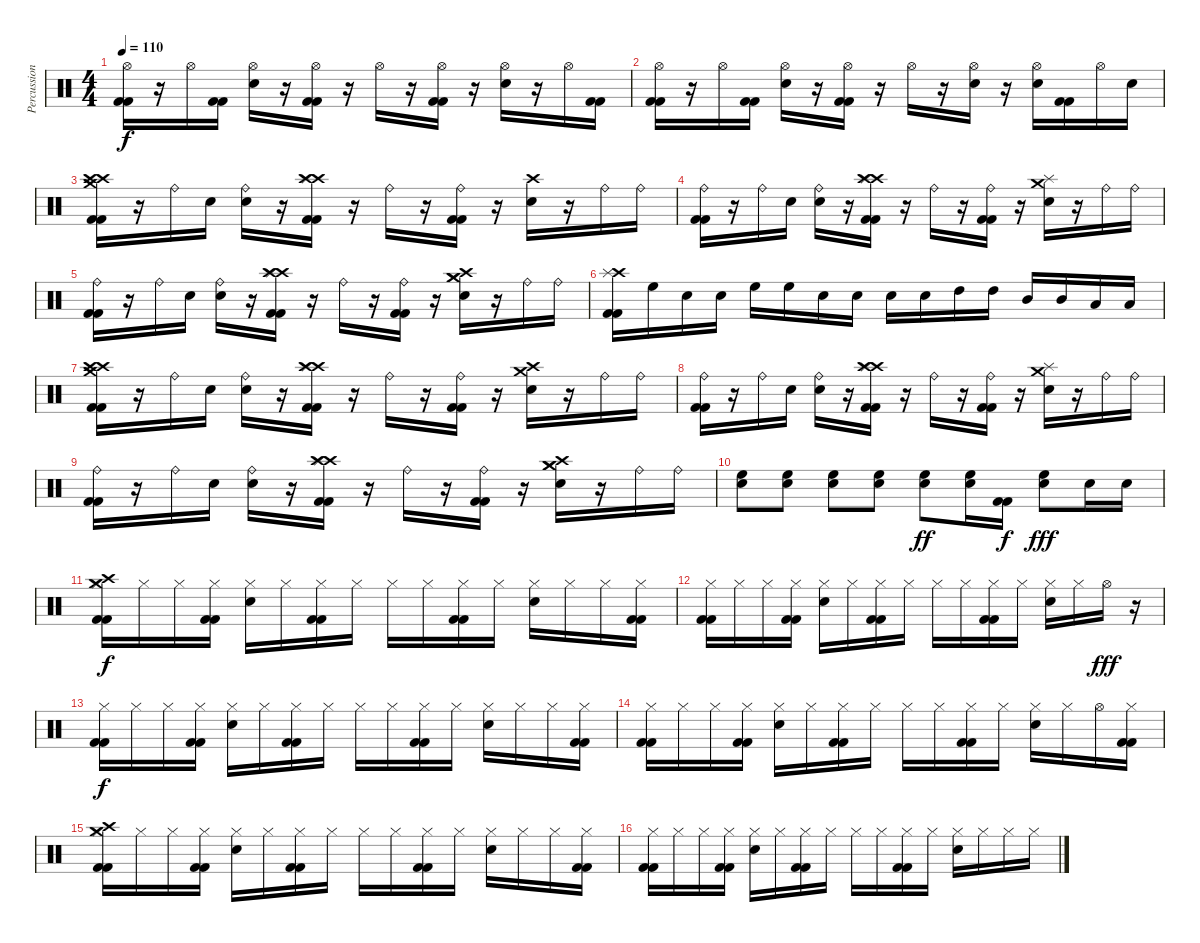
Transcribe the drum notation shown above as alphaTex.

\track ("Percussion" "Percussion") {instrument percussion}
\staff {score}
\articulation defaults
\ts (4 4)
\tempo 110
\clef neutral
\ks c
("Hi-Hat (open)" "Kick (hit) 2" "Kick (hit) 2").16{dy f} r.16 "Hi-Hat (open)".16 ("Kick (hit) 2" "Kick (hit) 2").16 ("Hi-Hat (open)" "Electric Snare (hit)").16 r.16 ("Hi-Hat (open)" "Kick (hit) 2" "Kick (hit) 2").16 r.16 "Hi-Hat (open)".16 r.16 ("Hi-Hat (open)" "Kick (hit) 2" "Kick (hit) 2").16 r.16 ("Hi-Hat (open)" "Electric Snare (hit)").16 r.16 "Hi-Hat (open)".16 ("Kick (hit) 2" "Kick (hit) 2").16 |
("Hi-Hat (open)" "Kick (hit) 2" "Kick (hit) 2").16 r.16 "Hi-Hat (open)".16 ("Kick (hit) 2" "Kick (hit) 2").16 ("Hi-Hat (open)" "Electric Snare (hit)").16 r.16 ("Hi-Hat (open)" "Kick (hit) 2" "Kick (hit) 2").16 r.16 "Hi-Hat (open)".16 r.16 ("Hi-Hat (open)" "Electric Snare (hit)").16 r.16 ("Hi-Hat (open)" "Electric Snare (hit)").16 ("Kick (hit) 2" "Kick (hit) 2").16 "Hi-Hat (open)".16 "Electric Snare (hit)".16 |
("Crash high (hit)" "Crash high (hit)" "Crash medium (hit)" "Kick (hit) 2" "Kick (hit) 2").16 r.16 "Ride (bell)".16 "Electric Snare (hit)".16 ("Ride (bell)" "Electric Snare (hit)").16 r.16 ("Crash high (hit)" "Crash high (hit)" "Splash (hit)" "Kick (hit) 2" "Kick (hit) 2").16 r.16 "Ride (bell)".16 r.16 ("Ride (bell)" "Kick (hit) 2" "Kick (hit) 2").16 r.16 ("Crash high (hit)" "Electric Snare (hit)").16 r.16 "Ride (bell)".16 "Ride (bell)".16 |
("Ride (bell)" "Kick (hit) 2" "Kick (hit) 2").16 r.16 "Ride (bell)".16 "Electric Snare (hit)".16 ("Ride (bell)" "Electric Snare (hit)").16 r.16 ("Crash high (hit)" "Crash high (hit)" "Splash (hit)" "Kick (hit) 2" "Kick (hit) 2").16 r.16 "Ride (bell)".16 r.16 ("Ride (bell)" "Kick (hit) 2" "Kick (hit) 2").16 r.16 ("Crash medium (hit)" "Splash (hit)" "Electric Snare (hit)").16 r.16 "Ride (bell)".16 "Ride (bell)".16 |
("Ride (bell)" "Kick (hit) 2" "Kick (hit) 2").16 r.16 "Ride (bell)".16 "Electric Snare (hit)".16 ("Ride (bell)" "Electric Snare (hit)").16 r.16 ("Crash high (hit)" "Crash high (hit)" "Splash (hit)" "Kick (hit) 2" "Kick (hit) 2").16 r.16 "Ride (bell)".16 r.16 ("Ride (bell)" "Kick (hit) 2" "Kick (hit) 2").16 r.16 ("Crash high (hit)" "Crash medium (hit)" "Crash medium (hit)" "Electric Snare (hit)").16 r.16 "Ride (bell)".16 "Ride (bell)".16 |
("Crash high (hit)" "Splash (hit)" "Kick (hit) 2" "Kick (hit) 2").16 "High Floor Tom (hit)".16 "Electric Snare (hit)".16 "Electric Snare (hit)".16 "High Floor Tom (hit)".16 "High Floor Tom (hit)".16 "Electric Snare (hit)".16 "Electric Snare (hit)".16 "Electric Snare (hit)".16 "Electric Snare (hit)".16 "High Tom (hit)".16 "High Tom (hit)".16 "Mid Tom (hit)".16 "Mid Tom (hit)".16 "Low Tom (hit)".16 "Low Tom (hit)".16 |
("Crash high (hit)" "Crash high (hit)" "Crash medium (hit)" "Kick (hit) 2" "Kick (hit) 2").16 r.16 "Ride (bell)".16 "Electric Snare (hit)".16 ("Ride (bell)" "Electric Snare (hit)").16 r.16 ("Crash high (hit)" "Crash high (hit)" "Splash (hit)" "Kick (hit) 2" "Kick (hit) 2").16 r.16 "Ride (bell)".16 r.16 ("Ride (bell)" "Kick (hit) 2" "Kick (hit) 2").16 r.16 ("Crash high (hit)" "Crash medium (hit)" "Electric Snare (hit)").16 r.16 "Ride (bell)".16 "Ride (bell)".16 |
("Ride (bell)" "Kick (hit) 2" "Kick (hit) 2").16 r.16 "Ride (bell)".16 "Electric Snare (hit)".16 ("Ride (bell)" "Electric Snare (hit)").16 r.16 ("Crash high (hit)" "Crash high (hit)" "Splash (hit)" "Kick (hit) 2" "Kick (hit) 2").16 r.16 "Ride (bell)".16 r.16 ("Ride (bell)" "Kick (hit) 2" "Kick (hit) 2").16 r.16 ("Crash medium (hit)" "Splash (hit)" "Electric Snare (hit)").16 r.16 "Ride (bell)".16 "Ride (bell)".16 |
("Ride (bell)" "Kick (hit) 2" "Kick (hit) 2").16 r.16 "Ride (bell)".16 "Electric Snare (hit)".16 ("Ride (bell)" "Electric Snare (hit)").16 r.16 ("Crash high (hit)" "Crash high (hit)" "Splash (hit)" "Kick (hit) 2" "Kick (hit) 2").16 r.16 "Ride (bell)".16 r.16 ("Ride (bell)" "Kick (hit) 2" "Kick (hit) 2").16 r.16 ("Crash high (hit)" "Crash medium (hit)" "Crash medium (hit)" "Electric Snare (hit)").16 r.16 "Ride (bell)".16 "Ride (bell)".16 |
("High Floor Tom (hit)" "Electric Snare (hit)").8 ("High Floor Tom (hit)" "Electric Snare (hit)").8 ("High Floor Tom (hit)" "Electric Snare (hit)").8 ("High Floor Tom (hit)" "Electric Snare (hit)").8 ("High Floor Tom (hit)" "Electric Snare (hit)").8{dy ff} ("High Floor Tom (hit)" "Electric Snare (hit)").16 ("Kick (hit) 2" "Kick (hit) 2").16{dy f} ("High Floor Tom (hit)" "Electric Snare (hit)").8{dy fff} "Electric Snare (hit)".16 "Electric Snare (hit)".16 |
("Hi-Hat (closed)" "Crash high (hit)" "Crash medium (hit)" "Kick (hit) 2" "Kick (hit) 2").16{dy f} "Hi-Hat (closed)".16 "Hi-Hat (closed)".16 ("Hi-Hat (closed)" "Kick (hit) 2" "Kick (hit) 2").16 ("Hi-Hat (closed)" "Electric Snare (hit)").16 "Hi-Hat (closed)".16 ("Hi-Hat (closed)" "Kick (hit) 2" "Kick (hit) 2").16 "Hi-Hat (closed)".16 "Hi-Hat (closed)".16 "Hi-Hat (closed)".16 ("Hi-Hat (closed)" "Kick (hit) 2" "Kick (hit) 2").16 "Hi-Hat (closed)".16 ("Hi-Hat (closed)" "Electric Snare (hit)").16 "Hi-Hat (closed)".16 "Hi-Hat (closed)".16 ("Hi-Hat (closed)" "Kick (hit) 2" "Kick (hit) 2").16 |
("Hi-Hat (closed)" "Kick (hit) 2" "Kick (hit) 2").16 "Hi-Hat (closed)".16 "Hi-Hat (closed)".16 ("Hi-Hat (closed)" "Kick (hit) 2" "Kick (hit) 2").16 ("Hi-Hat (closed)" "Electric Snare (hit)").16 "Hi-Hat (closed)".16 ("Hi-Hat (closed)" "Kick (hit) 2" "Kick (hit) 2").16 "Hi-Hat (closed)".16 "Hi-Hat (closed)".16 "Hi-Hat (closed)".16 ("Hi-Hat (closed)" "Kick (hit) 2" "Kick (hit) 2").16 "Hi-Hat (closed)".16 ("Hi-Hat (closed)" "Electric Snare (hit)").16 "Hi-Hat (closed)".16 "Hi-Hat (open)".16{dy fff} r.16 |
("Hi-Hat (closed)" "Kick (hit) 2" "Kick (hit) 2").16{dy f} "Hi-Hat (closed)".16 "Hi-Hat (closed)".16 ("Hi-Hat (closed)" "Kick (hit) 2" "Kick (hit) 2").16 ("Hi-Hat (closed)" "Electric Snare (hit)").16 "Hi-Hat (closed)".16 ("Hi-Hat (closed)" "Kick (hit) 2" "Kick (hit) 2").16 "Hi-Hat (closed)".16 "Hi-Hat (closed)".16 "Hi-Hat (closed)".16 ("Hi-Hat (closed)" "Kick (hit) 2" "Kick (hit) 2").16 "Hi-Hat (closed)".16 ("Hi-Hat (closed)" "Electric Snare (hit)").16 "Hi-Hat (closed)".16 "Hi-Hat (closed)".16 ("Hi-Hat (closed)" "Kick (hit) 2" "Kick (hit) 2").16 |
("Hi-Hat (closed)" "Kick (hit) 2" "Kick (hit) 2").16 "Hi-Hat (closed)".16 "Hi-Hat (closed)".16 ("Hi-Hat (closed)" "Kick (hit) 2" "Kick (hit) 2").16 ("Hi-Hat (closed)" "Electric Snare (hit)").16 "Hi-Hat (closed)".16 ("Hi-Hat (closed)" "Kick (hit) 2" "Kick (hit) 2").16 "Hi-Hat (closed)".16 "Hi-Hat (closed)".16 "Hi-Hat (closed)".16 ("Hi-Hat (closed)" "Kick (hit) 2" "Kick (hit) 2").16 "Hi-Hat (closed)".16 ("Hi-Hat (closed)" "Electric Snare (hit)").16 "Hi-Hat (closed)".16 "Hi-Hat (open)".16 ("Hi-Hat (closed)" "Kick (hit) 2" "Kick (hit) 2").16 |
("Hi-Hat (closed)" "Crash high (hit)" "Crash medium (hit)" "Kick (hit) 2" "Kick (hit) 2").16 "Hi-Hat (closed)".16 "Hi-Hat (closed)".16 ("Hi-Hat (closed)" "Kick (hit) 2" "Kick (hit) 2").16 ("Hi-Hat (closed)" "Electric Snare (hit)").16 "Hi-Hat (closed)".16 ("Hi-Hat (closed)" "Kick (hit) 2" "Kick (hit) 2").16 "Hi-Hat (closed)".16 "Hi-Hat (closed)".16 "Hi-Hat (closed)".16 ("Hi-Hat (closed)" "Kick (hit) 2" "Kick (hit) 2").16 "Hi-Hat (closed)".16 ("Hi-Hat (closed)" "Electric Snare (hit)").16 "Hi-Hat (closed)".16 "Hi-Hat (closed)".16 ("Hi-Hat (closed)" "Kick (hit) 2" "Kick (hit) 2").16 |
("Hi-Hat (closed)" "Kick (hit) 2" "Kick (hit) 2").16 "Hi-Hat (closed)".16 "Hi-Hat (closed)".16 ("Hi-Hat (closed)" "Kick (hit) 2" "Kick (hit) 2").16 ("Hi-Hat (closed)" "Electric Snare (hit)").16 "Hi-Hat (closed)".16 ("Hi-Hat (closed)" "Kick (hit) 2" "Kick (hit) 2").16 "Hi-Hat (closed)".16 "Hi-Hat (closed)".16 "Hi-Hat (closed)".16 ("Hi-Hat (closed)" "Kick (hit) 2" "Kick (hit) 2").16 "Hi-Hat (closed)".16 ("Hi-Hat (closed)" "Electric Snare (hit)").16 "Hi-Hat (closed)".16 "Hi-Hat (closed)".16 "Hi-Hat (closed)".16
